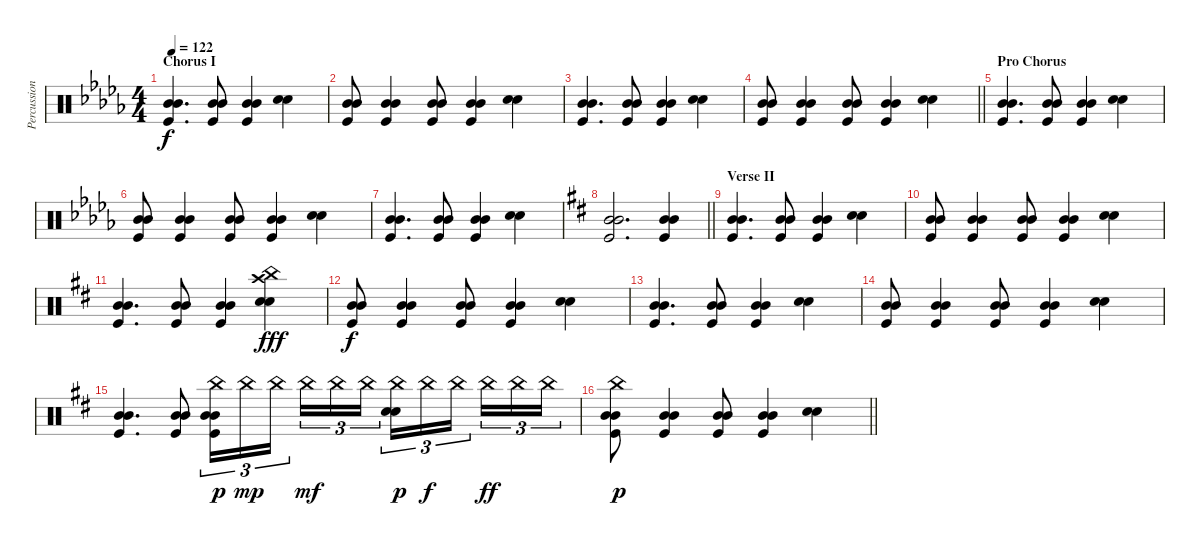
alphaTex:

\track ("Percussion" "Percussion") {instrument percussion}
\staff {score}
\articulation defaults
\ts (4 4)
\section ("" "Chorus I")
\tempo 122
\clef neutral
\ks bbminor
("Mid Tom (hit)" "Mid Tom (hit)" "Kick (hit)").4{d dy f} ("Mid Tom (hit)" "Mid Tom (hit)" "Kick (hit)").8 ("Mid Tom (hit)" "Mid Tom (hit)" "Kick (hit)").4 ("Snare (hit) 2" "Snare (hit) 2").4 |
("Mid Tom (hit)" "Mid Tom (hit)" "Kick (hit)").8 ("Mid Tom (hit)" "Mid Tom (hit)" "Kick (hit)").4 ("Mid Tom (hit)" "Mid Tom (hit)" "Kick (hit)").8 ("Mid Tom (hit)" "Mid Tom (hit)" "Kick (hit)").4 ("Snare (hit) 2" "Snare (hit) 2").4 |
("Mid Tom (hit)" "Mid Tom (hit)" "Kick (hit)").4{d} ("Mid Tom (hit)" "Mid Tom (hit)" "Kick (hit)").8 ("Mid Tom (hit)" "Mid Tom (hit)" "Kick (hit)").4 ("Snare (hit) 2" "Snare (hit) 2").4 |
\barLineRight lightlight
("Mid Tom (hit)" "Mid Tom (hit)" "Kick (hit)").8 ("Mid Tom (hit)" "Mid Tom (hit)" "Kick (hit)").4 ("Mid Tom (hit)" "Mid Tom (hit)" "Kick (hit)").8 ("Mid Tom (hit)" "Mid Tom (hit)" "Kick (hit)").4 ("Snare (hit) 2" "Snare (hit) 2").4 |
\section ("" "Pro Chorus")
("Mid Tom (hit)" "Mid Tom (hit)" "Kick (hit)").4{d} ("Mid Tom (hit)" "Mid Tom (hit)" "Kick (hit)").8 ("Mid Tom (hit)" "Mid Tom (hit)" "Kick (hit)").4 ("Snare (hit) 2" "Snare (hit) 2").4 |
("Mid Tom (hit)" "Mid Tom (hit)" "Kick (hit)").8 ("Mid Tom (hit)" "Mid Tom (hit)" "Kick (hit)").4 ("Mid Tom (hit)" "Mid Tom (hit)" "Kick (hit)").8 ("Mid Tom (hit)" "Mid Tom (hit)" "Kick (hit)").4 ("Snare (hit) 2" "Snare (hit) 2").4 |
("Mid Tom (hit)" "Mid Tom (hit)" "Kick (hit)").4{d} ("Mid Tom (hit)" "Mid Tom (hit)" "Kick (hit)").8 ("Mid Tom (hit)" "Mid Tom (hit)" "Kick (hit)").4 ("Snare (hit) 2" "Snare (hit) 2").4 |
\barLineRight lightlight
\ks bminor
("Mid Tom (hit)" "Mid Tom (hit)" "Kick (hit)").2{d} ("Mid Tom (hit)" "Mid Tom (hit)" "Kick (hit)").4 |
\section ("" "Verse II")
("Mid Tom (hit)" "Mid Tom (hit)" "Kick (hit)").4{d} ("Mid Tom (hit)" "Mid Tom (hit)" "Kick (hit)").8 ("Mid Tom (hit)" "Mid Tom (hit)" "Kick (hit)").4 ("Snare (hit) 2" "Snare (hit) 2").4 |
("Mid Tom (hit)" "Mid Tom (hit)" "Kick (hit)").8 ("Mid Tom (hit)" "Mid Tom (hit)" "Kick (hit)").4 ("Mid Tom (hit)" "Mid Tom (hit)" "Kick (hit)").8 ("Mid Tom (hit)" "Mid Tom (hit)" "Kick (hit)").4 ("Snare (hit) 2" "Snare (hit) 2").4 |
("Mid Tom (hit)" "Mid Tom (hit)" "Kick (hit)").4{d} ("Mid Tom (hit)" "Mid Tom (hit)" "Kick (hit)").8 ("Mid Tom (hit)" "Mid Tom (hit)" "Kick (hit)").4 ("Crash high (hit)" "China (hit)" "Snare (hit) 2" "Snare (hit) 2").4{dy fff} |
("Mid Tom (hit)" "Mid Tom (hit)" "Kick (hit)").8{dy f} ("Mid Tom (hit)" "Mid Tom (hit)" "Kick (hit)").4 ("Mid Tom (hit)" "Mid Tom (hit)" "Kick (hit)").8 ("Mid Tom (hit)" "Mid Tom (hit)" "Kick (hit)").4 ("Snare (hit) 2" "Snare (hit) 2").4 |
("Mid Tom (hit)" "Mid Tom (hit)" "Kick (hit)").4{d} ("Mid Tom (hit)" "Mid Tom (hit)" "Kick (hit)").8 ("Mid Tom (hit)" "Mid Tom (hit)" "Kick (hit)").4 ("Snare (hit) 2" "Snare (hit) 2").4 |
("Mid Tom (hit)" "Mid Tom (hit)" "Kick (hit)").8 ("Mid Tom (hit)" "Mid Tom (hit)" "Kick (hit)").4 ("Mid Tom (hit)" "Mid Tom (hit)" "Kick (hit)").8 ("Mid Tom (hit)" "Mid Tom (hit)" "Kick (hit)").4 ("Snare (hit) 2" "Snare (hit) 2").4 |
("Mid Tom (hit)" "Mid Tom (hit)" "Kick (hit)").4{d} ("Mid Tom (hit)" "Mid Tom (hit)" "Kick (hit)").8 ("China (hit)" "Mid Tom (hit)" "Mid Tom (hit)" "Kick (hit)").16{tu (3 2) dy p volume 15} "China (hit)".16{tu (3 2) dy mp} "China (hit)".16{tu (3 2) beam splitsecondary} "China (hit)".16{tu (3 2) dy mf} "China (hit)".16{tu (3 2)} "China (hit)".16{tu (3 2)} ("China (hit)" "Snare (hit) 2" "Snare (hit) 2").16{tu (3 2) dy p} "China (hit)".16{tu (3 2) dy f} "China (hit)".16{tu (3 2) beam splitsecondary} "China (hit)".16{tu (3 2) dy ff} "China (hit)".16{tu (3 2)} "China (hit)".16{tu (3 2)} |
\barLineRight lightlight
("China (hit)" "Mid Tom (hit)" "Mid Tom (hit)" "Kick (hit)").8{dy p} ("Mid Tom (hit)" "Mid Tom (hit)" "Kick (hit)").4 ("Mid Tom (hit)" "Mid Tom (hit)" "Kick (hit)").8 ("Mid Tom (hit)" "Mid Tom (hit)" "Kick (hit)").4 ("Snare (hit) 2" "Snare (hit) 2").4
